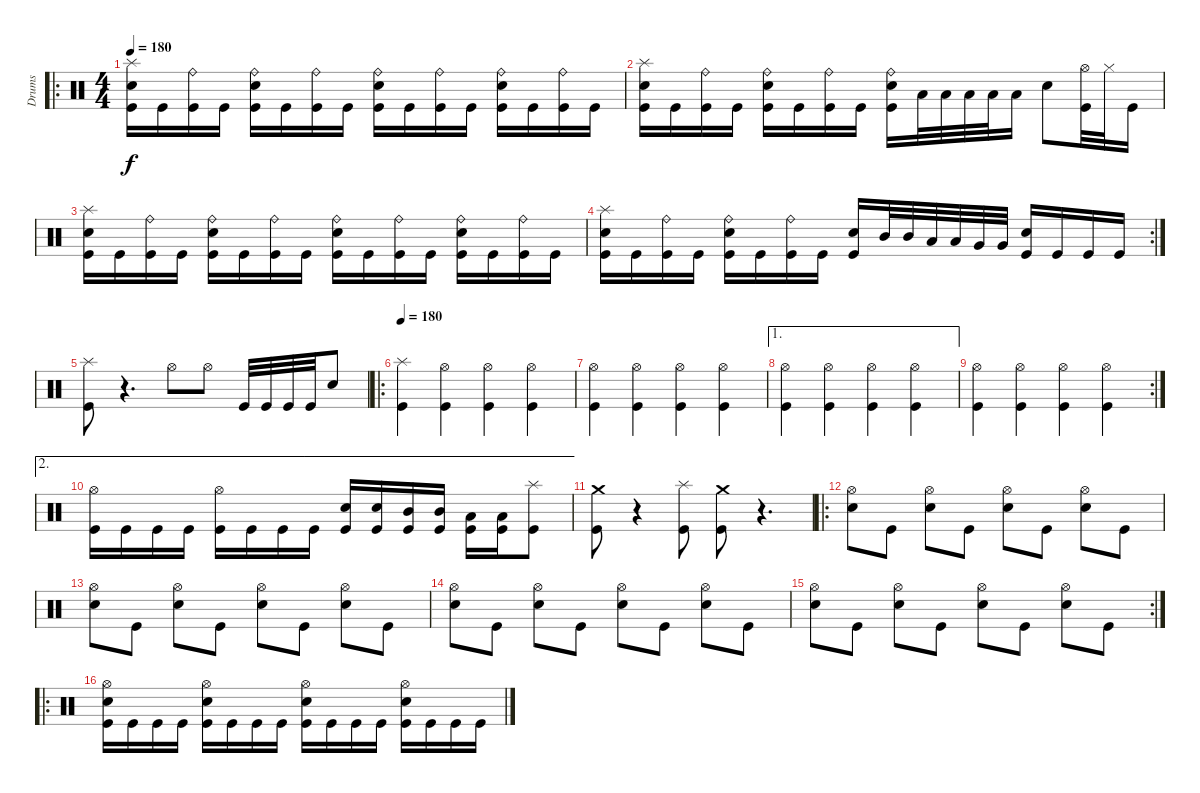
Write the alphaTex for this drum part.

\track ("Drums" "Drums") {instrument percussion}
\staff {score}
\articulation defaults
\ro
\ts (4 4)
\tempo 180
\tempo 105
\tempo 180
\clef neutral
\ks c
("Kick (hit)" "Electric Snare (hit)" "Splash (hit)").16{dy f} "Kick (hit)".16 ("Kick (hit)" "Ride (bell)").16 "Kick (hit)".16 ("Kick (hit)" "Electric Snare (hit)" "Ride (bell)").16 "Kick (hit)".16 ("Kick (hit)" "Ride (bell)").16 "Kick (hit)".16 ("Kick (hit)" "Electric Snare (hit)" "Ride (bell)").16 "Kick (hit)".16 ("Kick (hit)" "Ride (bell)").16 "Kick (hit)".16 ("Kick (hit)" "Electric Snare (hit)" "Ride (bell)").16 "Kick (hit)".16 ("Kick (hit)" "Ride (bell)").16 "Kick (hit)".16 |
("Kick (hit)" "Electric Snare (hit)" "Splash (hit)").16 "Kick (hit)".16 ("Kick (hit)" "Ride (bell)").16 "Kick (hit)".16 ("Kick (hit)" "Electric Snare (hit)" "Ride (bell)").16 "Kick (hit)".16 ("Kick (hit)" "Ride (bell)").16 "Kick (hit)".16 ("Kick (hit)" "Electric Snare (hit)" "Ride (bell)").16 "Low Tom (hit)".32 "Low Tom (hit)".32 "Low Tom (hit)".32 "Low Tom (hit)".32 "Low Tom (hit)".16 "Electric Snare (hit)".8 ("Kick (hit)" "Hi-Hat (open)").32 "Hi-Hat (closed)".32 "Kick (hit)".16 |
("Kick (hit)" "Electric Snare (hit)" "Splash (hit)").16 "Kick (hit)".16 ("Kick (hit)" "Ride (bell)").16 "Kick (hit)".16 ("Kick (hit)" "Electric Snare (hit)" "Ride (bell)").16 "Kick (hit)".16 ("Kick (hit)" "Ride (bell)").16 "Kick (hit)".16 ("Kick (hit)" "Electric Snare (hit)" "Ride (bell)").16 "Kick (hit)".16 ("Kick (hit)" "Ride (bell)").16 "Kick (hit)".16 ("Kick (hit)" "Electric Snare (hit)" "Ride (bell)").16 "Kick (hit)".16 ("Kick (hit)" "Ride (bell)").16 "Kick (hit)".16 |
\rc 2
("Kick (hit)" "Electric Snare (hit)" "Splash (hit)").16 "Kick (hit)".16 ("Kick (hit)" "Ride (bell)").16 "Kick (hit)".16 ("Kick (hit)" "Electric Snare (hit)" "Ride (bell)").16 "Kick (hit)".16 ("Kick (hit)" "Ride (bell)").16 "Kick (hit)".16 ("Kick (hit)" "Electric Snare (hit)").16 "Mid Tom (hit)".32 "Mid Tom (hit)".32 "Low Tom (hit)".32 "Low Tom (hit)".32 "Very Low Tom (hit)".32 "Very Low Tom (hit)".32 ("Kick (hit)" "Electric Snare (hit)").16 "Kick (hit)".16 "Kick (hit)".16 "Kick (hit)".16 |
("Kick (hit)" "Splash (hit)").8 r.4{d} "Hi-Hat (open)".8 "Hi-Hat (open)".8 "Kick (hit)".32 "Kick (hit)".32 "Kick (hit)".32 "Kick (hit)".32 "Electric Snare (hit)".8 |
\ro
\tempo 180
("Kick (hit)" "Splash (hit)").4 ("Kick (hit)" "Hi-Hat (open)").4 ("Kick (hit)" "Hi-Hat (open)").4 ("Kick (hit)" "Hi-Hat (open)").4 |
("Kick (hit)" "Hi-Hat (open)").4 ("Kick (hit)" "Hi-Hat (open)").4 ("Kick (hit)" "Hi-Hat (open)").4 ("Kick (hit)" "Hi-Hat (open)").4 |
\ae 1
("Kick (hit)" "Hi-Hat (open)").4 ("Kick (hit)" "Hi-Hat (open)").4 ("Kick (hit)" "Hi-Hat (open)").4 ("Kick (hit)" "Hi-Hat (open)").4 |
\rc 2
("Kick (hit)" "Hi-Hat (open)").4 ("Kick (hit)" "Hi-Hat (open)").4 ("Kick (hit)" "Hi-Hat (open)").4 ("Kick (hit)" "Hi-Hat (open)").4 |
\ae 2
("Kick (hit)" "Hi-Hat (open)").16 "Kick (hit)".16 "Kick (hit)".16 "Kick (hit)".16 ("Kick (hit)" "Hi-Hat (open)").16 "Kick (hit)".16 "Kick (hit)".16 "Kick (hit)".16 ("Kick (hit)" "Electric Snare (hit)").16 ("Kick (hit)" "Electric Snare (hit)").16 ("Kick (hit)" "Mid Tom (hit)").16 ("Kick (hit)" "Mid Tom (hit)").16 ("Kick (hit)" "Low Tom (hit)").16 ("Kick (hit)" "Low Tom (hit)").16 ("Kick (hit)" "Splash (hit)").8 |
("Kick (hit)" "Crash medium (hit)").8 r.4 ("Kick (hit)" "Splash (hit)").8 ("Kick (hit)" "Crash medium (hit)").8 r.4{d} |
\ro
("Electric Snare (hit)" "Hi-Hat (open)").8 "Kick (hit)".8 ("Electric Snare (hit)" "Hi-Hat (open)").8 "Kick (hit)".8 ("Electric Snare (hit)" "Hi-Hat (open)").8 "Kick (hit)".8 ("Electric Snare (hit)" "Hi-Hat (open)").8 "Kick (hit)".8 |
("Electric Snare (hit)" "Hi-Hat (open)").8 "Kick (hit)".8 ("Electric Snare (hit)" "Hi-Hat (open)").8 "Kick (hit)".8 ("Electric Snare (hit)" "Hi-Hat (open)").8 "Kick (hit)".8 ("Electric Snare (hit)" "Hi-Hat (open)").8 "Kick (hit)".8 |
("Electric Snare (hit)" "Hi-Hat (open)").8 "Kick (hit)".8 ("Electric Snare (hit)" "Hi-Hat (open)").8 "Kick (hit)".8 ("Electric Snare (hit)" "Hi-Hat (open)").8 "Kick (hit)".8 ("Electric Snare (hit)" "Hi-Hat (open)").8 "Kick (hit)".8 |
\rc 2
("Electric Snare (hit)" "Hi-Hat (open)").8 "Kick (hit)".8 ("Electric Snare (hit)" "Hi-Hat (open)").8 "Kick (hit)".8 ("Electric Snare (hit)" "Hi-Hat (open)").8 "Kick (hit)".8 ("Electric Snare (hit)" "Hi-Hat (open)").8 "Kick (hit)".8 |
\ro
("Kick (hit)" "Electric Snare (hit)" "Hi-Hat (open)").16 "Kick (hit)".16 "Kick (hit)".16 "Kick (hit)".16 ("Kick (hit)" "Electric Snare (hit)" "Hi-Hat (open)").16 "Kick (hit)".16 "Kick (hit)".16 "Kick (hit)".16 ("Kick (hit)" "Electric Snare (hit)" "Hi-Hat (open)").16 "Kick (hit)".16 "Kick (hit)".16 "Kick (hit)".16 ("Kick (hit)" "Electric Snare (hit)" "Hi-Hat (open)").16 "Kick (hit)".16 "Kick (hit)".16 "Kick (hit)".16
